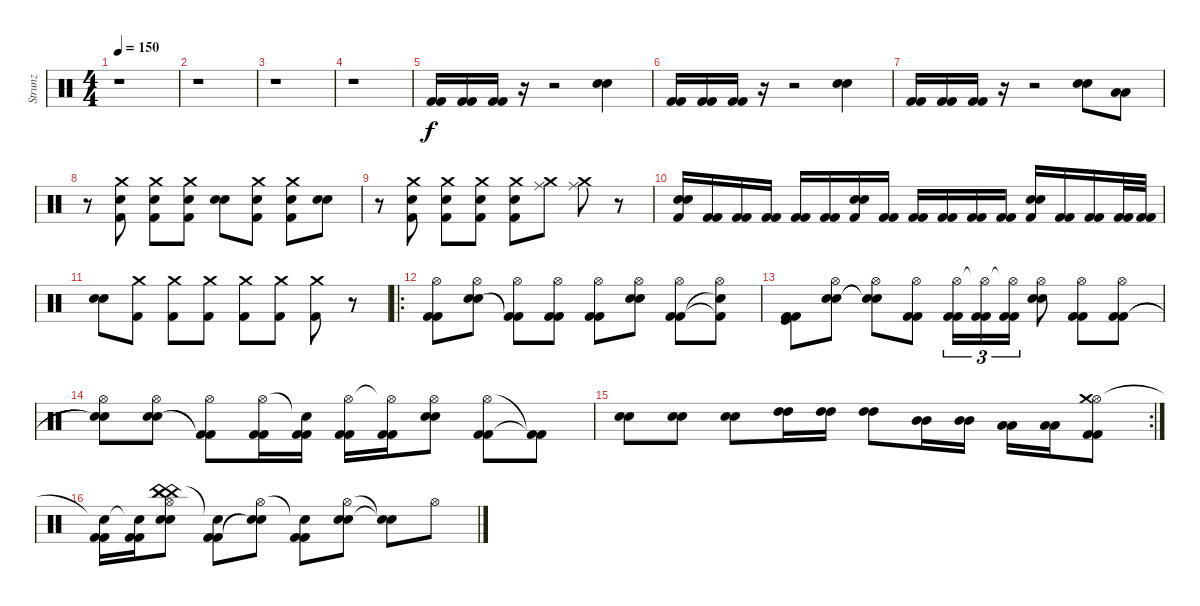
\track ("Strunz" "Strunz") {instrument percussion}
\staff {score}
\articulation defaults
\ts (4 4)
\tempo 150
\clef neutral
\ks c
r.1{dy f} |
r.1 |
r.1 |
r.1 |
("Kick (hit) 2" "Kick (hit) 2").16 ("Kick (hit) 2" "Kick (hit) 2").16 ("Kick (hit) 2" "Kick (hit) 2").16 r.16 r.2 ("Snare (hit) 2" "Snare (hit) 2").4 |
("Kick (hit) 2" "Kick (hit) 2").16 ("Kick (hit) 2" "Kick (hit) 2").16 ("Kick (hit) 2" "Kick (hit) 2").16 r.16 r.2 ("Snare (hit) 2" "Snare (hit) 2").4 |
("Kick (hit) 2" "Kick (hit) 2").16 ("Kick (hit) 2" "Kick (hit) 2").16 ("Kick (hit) 2" "Kick (hit) 2").16 r.16 r.2 ("Snare (hit) 2" "Snare (hit) 2").8 ("Low Tom (hit)" "Low Tom (hit)").8 |
r.8 ("Kick (hit) 2" "Crash medium (hit)" "Snare (hit) 2").8 ("Kick (hit) 2" "Crash medium (hit)" "Snare (hit) 2").8 ("Kick (hit) 2" "Crash medium (hit)" "Snare (hit) 2").8 ("Snare (hit) 2" "Snare (hit) 2").8 ("Kick (hit) 2" "Crash medium (hit)" "Snare (hit) 2").8 ("Kick (hit) 2" "Crash medium (hit)" "Snare (hit) 2").8 ("Snare (hit) 2" "Snare (hit) 2").8 |
r.8 ("Kick (hit) 2" "Snare (hit) 2" "Crash medium (hit)").8 ("Kick (hit) 2" "Snare (hit) 2" "Crash medium (hit)").8 ("Kick (hit) 2" "Snare (hit) 2" "Crash medium (hit)").8 ("Kick (hit) 2" "Snare (hit) 2" "Crash medium (hit)").8 ("Crash medium (hit)" "Ride (middle)").8 ("Crash medium (hit)" "Ride (middle)").8 r.8 |
("Kick (hit) 2" "Snare (hit) 2" "Snare (hit) 2").16 ("Kick (hit) 2" "Kick (hit) 2").16 ("Kick (hit) 2" "Kick (hit) 2").16 ("Kick (hit) 2" "Kick (hit) 2").16 ("Kick (hit) 2" "Kick (hit) 2").16 ("Kick (hit) 2" "Kick (hit) 2").16 ("Kick (hit) 2" "Snare (hit) 2" "Snare (hit) 2").16 ("Kick (hit) 2" "Kick (hit) 2").16 ("Kick (hit) 2" "Kick (hit) 2").16 ("Kick (hit) 2" "Kick (hit) 2").16 ("Kick (hit) 2" "Kick (hit) 2").16 ("Kick (hit) 2" "Kick (hit) 2").16 ("Kick (hit) 2" "Snare (hit) 2" "Snare (hit) 2").16 ("Kick (hit) 2" "Kick (hit) 2").16 ("Kick (hit) 2" "Kick (hit) 2").16 ("Kick (hit) 2" "Kick (hit) 2").32 ("Kick (hit) 2" "Kick (hit) 2").32 |
("Snare (hit) 2" "Snare (hit) 2").8 ("Kick (hit) 2" "Crash medium (hit)").8 ("Kick (hit) 2" "Crash medium (hit)").8 ("Kick (hit) 2" "Crash medium (hit)").8 ("Kick (hit) 2" "Crash medium (hit)").8 ("Kick (hit) 2" "Crash medium (hit)").8 ("Kick (hit) 2" "Crash medium (hit)").8 r.8 |
\ro
("Hi-Hat (open)" "Kick (hit) 2" "Kick (hit) 2").8 ("Hi-Hat (open)" "Snare (hit) 2" "Snare (hit) 2").8 ("Hi-Hat (open)" "Kick (hit) 2"{t} "Kick (hit) 2"{t}).8 ("Hi-Hat (open)" "Kick (hit) 2" "Kick (hit) 2").8 ("Hi-Hat (open)" "Kick (hit) 2" "Kick (hit) 2").8 ("Hi-Hat (open)" "Snare (hit) 2" "Snare (hit) 2").8 ("Hi-Hat (open)" "Kick (hit) 2" "Kick (hit) 2").8 ("Hi-Hat (open)" "Kick (hit) 2"{t} "Snare (hit)"{t}).8 |
("Kick (hit)" "Kick (hit) 2" "Kick (hit) 2").8 ("Hi-Hat (open)" "Snare (hit) 2" "Snare (hit) 2").8 ("Hi-Hat (open)" "Snare (hit)"{t} "Snare (hit)"{t}).8 ("Hi-Hat (open)" "Kick (hit) 2" "Kick (hit) 2").8 ("Hi-Hat (open)" "Kick (hit) 2" "Kick (hit) 2").16{tu (3 2)} ("Hi-Hat (open)"{t} "Kick (hit) 2" "Kick (hit) 2").16{tu (3 2)} ("Hi-Hat (open)"{t} "Kick (hit) 2" "Kick (hit) 2").16{tu (3 2)} ("Hi-Hat (open)" "Snare (hit) 2" "Snare (hit) 2").8 ("Hi-Hat (open)" "Kick (hit) 2" "Kick (hit) 2").8 ("Hi-Hat (open)" "Kick (hit) 2" "Kick (hit) 2").8 |
("Hi-Hat (open)" "Snare (hit) 2"{t} "Snare (hit) 2"{t}).8 ("Hi-Hat (open)" "Snare (hit) 2" "Snare (hit) 2").8 ("Hi-Hat (open)" "Kick (hit) 2"{t} "Kick (hit) 2"{t}).8 ("Hi-Hat (open)" "Kick (hit) 2" "Kick (hit) 2").16 ("Snare (hit)"{t} "Kick (hit) 2" "Kick (hit) 2").16 ("Hi-Hat (open)" "Kick (hit) 2" "Kick (hit) 2").16 ("Hi-Hat (open)"{t} "Kick (hit) 2" "Kick (hit) 2").16 ("Hi-Hat (open)" "Snare (hit) 2" "Snare (hit) 2").8 ("Hi-Hat (open)" "Kick (hit) 2" "Kick (hit) 2").8 ("Kick (hit) 2"{t} "Kick (hit) 2"{t}).8 |
\rc 2
("Snare (hit) 2" "Snare (hit) 2").8 ("Snare (hit) 2" "Snare (hit) 2").8 ("Snare (hit) 2" "Snare (hit) 2").8 ("High Tom (hit)" "High Tom (hit)").16 ("High Tom (hit)" "High Tom (hit)").16 ("High Tom (hit)" "High Tom (hit)").8 ("Mid Tom (hit)" "Mid Tom (hit)").16 ("Mid Tom (hit)" "Mid Tom (hit)").16 ("Low Tom (hit)" "Low Tom (hit)").16 ("Low Tom (hit)" "Low Tom (hit)").16 ("Hi-Hat (open)" "Crash medium (hit)" "Kick (hit) 2" "Kick (hit) 2").8 |
("Snare (hit)"{t} "Kick (hit) 2" "Kick (hit) 2").16 ("Snare (hit)"{t} "Kick (hit) 2" "Kick (hit) 2").16 ("China (hit)" "Hi-Hat (open)" "China (hit)" "Snare (hit) 2" "Snare (hit) 2" "China (hit)").8 ("Snare (hit)"{t} "Kick (hit) 2" "Kick (hit) 2").8 ("Hi-Hat (open)" "Snare (hit)"{t} "Snare (hit)"{t}).8 ("Snare (hit)"{t} "Kick (hit) 2" "Kick (hit) 2").8 ("Hi-Hat (open)" "Snare (hit) 2" "Snare (hit) 2").8 ("Snare (hit)"{t} "Snare (hit)"{t}).8 "Hi-Hat (open)".8
